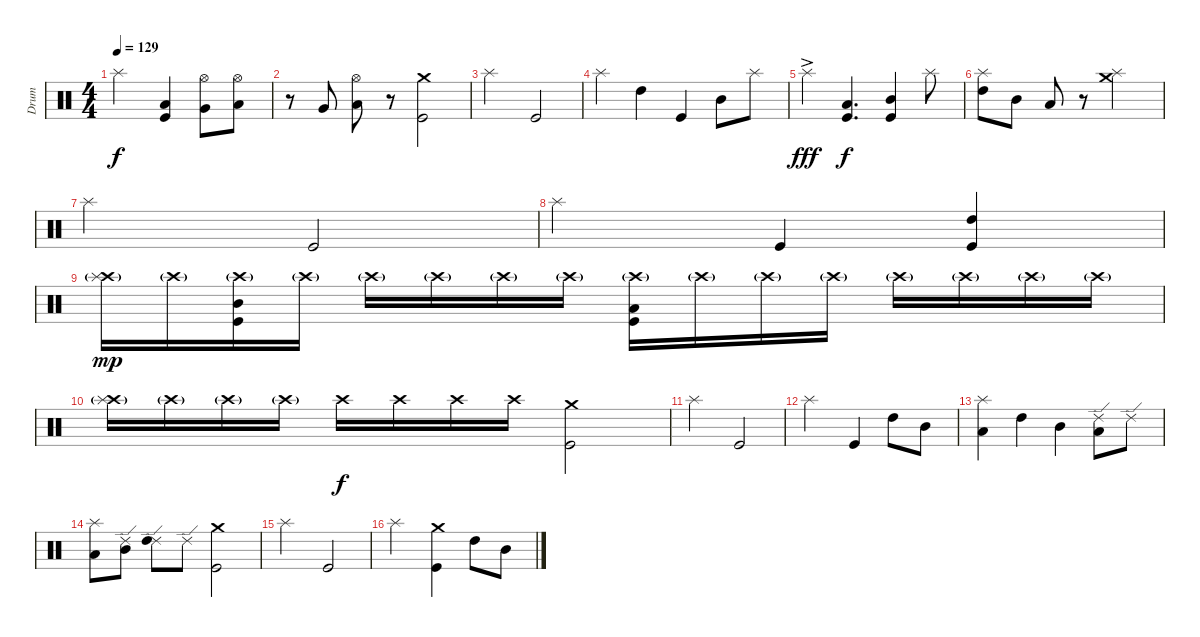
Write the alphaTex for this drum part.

\track ("Drum" "Drum") {instrument percussion}
\staff {score}
\articulation defaults
\ts (4 4)
\tempo 129
\clef neutral
\ks c "Splash (hit)".2{dy f}
("Low Tom (hit)" "Kick (hit)").4 ("Hi-Hat (open)" "Very Low Tom (hit)").8 ("Hi-Hat (open)" "Low Tom (hit)").8 |
r.8 "Very Low Tom (hit)".8 ("Hi-Hat (open)" "Low Tom (hit)").8 r.8 ("Crash medium (hit)" "Kick (hit)").2 |
"Splash (hit)".2 "Kick (hit)".2 |
"Splash (hit)".4 "High Tom (hit)".4 "Kick (hit)".4 "Mid Tom (hit)".8 "Splash (hit)".8 |
"Splash (hit)"{ac}.4{dy fff} ("Low Tom (hit)" "Kick (hit)").4{d dy f} ("Mid Tom (hit)" "Kick (hit)").4 "Splash (hit)".8 |
("High Tom (hit)" "Splash (hit)").8 "Mid Tom (hit)".8 "Low Tom (hit)".8 r.8 ("Crash medium (hit)" "Splash (hit)").2 |
"Splash (hit)".2 "Kick (hit)".2 |
"Splash (hit)".2 "Kick (hit)".4 ("High Tom (hit)" "Kick (hit)").4 |
("Crash high (hit)"{g} "Splash (hit)").16{dy mp} "Crash high (hit)"{g}.16 ("Crash high (hit)"{g} "Mid Tom (hit)" "Kick (hit)").16 "Crash high (hit)"{g}.16 "Crash high (hit)"{g}.16 "Crash high (hit)"{g}.16 "Crash high (hit)"{g}.16 "Crash high (hit)"{g}.16 ("Crash high (hit)"{g} "Low Tom (hit)" "Kick (hit)").16 "Crash high (hit)"{g}.16 "Crash high (hit)"{g}.16 "Crash high (hit)"{g}.16 "Crash high (hit)"{g}.16 "Crash high (hit)"{g}.16 "Crash high (hit)"{g}.16 "Crash high (hit)"{g}.16 |
("Crash high (hit)"{g} "Splash (hit)").16 "Crash high (hit)"{g}.16 "Crash high (hit)"{g}.16 "Crash high (hit)"{g}.16 "Crash high (hit)".16{dy f} "Crash high (hit)".16 "Crash high (hit)".16 "Crash high (hit)".16 ("Crash medium (hit)" "Kick (hit)").2 |
"Splash (hit)".2 "Kick (hit)".2 |
"Splash (hit)".2 "Kick (hit)".4 "High Tom (hit)".8 "Mid Tom (hit)".8 |
("Low Tom (hit)" "Splash (hit)").4 "High Tom (hit)".4 "Mid Tom (hit)".4 ("Ride (edge) 2" "Low Tom (hit)").8 "Ride (edge) 2".8 |
("Low Tom (hit)" "Splash (hit)").8 ("Ride (edge) 2" "Mid Tom (hit)").8 ("Ride (edge) 2" "High Tom (hit)").8 "Ride (edge) 2".8 ("Crash medium (hit)" "Kick (hit)").2 |
"Splash (hit)".2 "Kick (hit)".2 |
"Splash (hit)".2 ("Crash medium (hit)" "Kick (hit)").4 "High Tom (hit)".8 "Mid Tom (hit)".8
